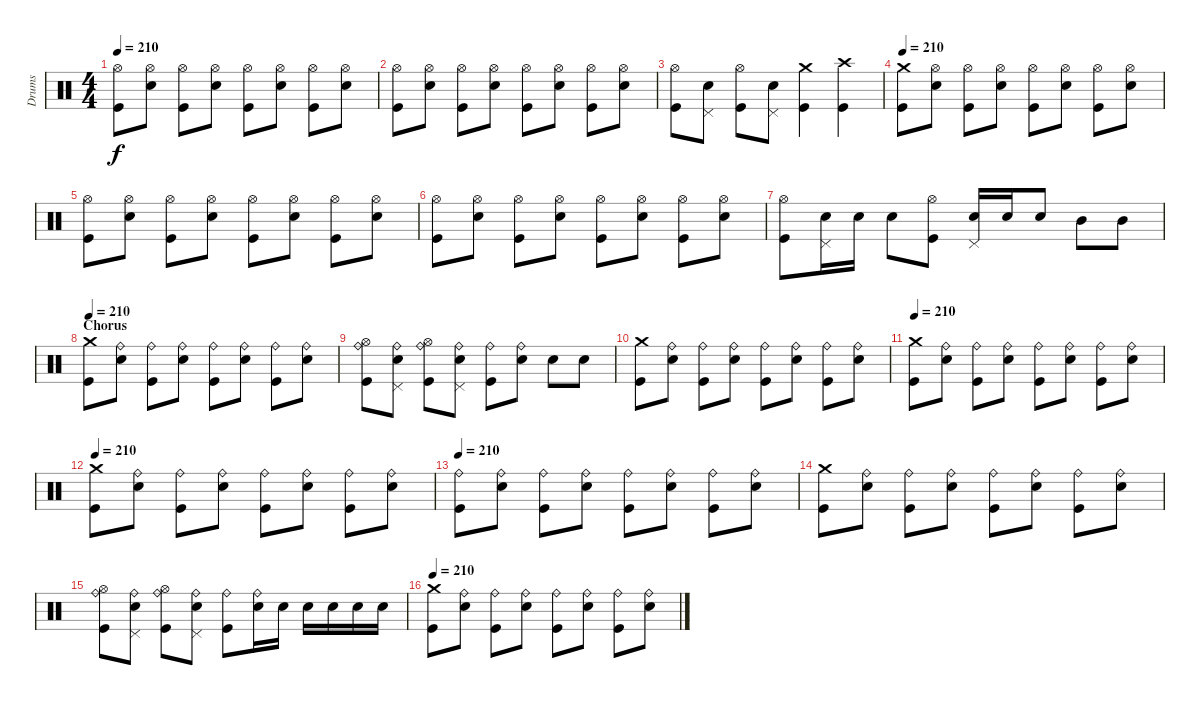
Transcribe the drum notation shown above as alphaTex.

\track ("Drums" "Drums") {instrument percussion}
\staff {score}
\articulation defaults
\ts (4 4)
\tempo 210
\clef neutral
\ks c
("Hi-Hat (open)" "Kick (hit)").8{dy f} ("Hi-Hat (open)" "Electric Snare (hit)").8 ("Hi-Hat (open)" "Kick (hit)").8 ("Hi-Hat (open)" "Electric Snare (hit)").8 ("Hi-Hat (open)" "Kick (hit)").8 ("Hi-Hat (open)" "Electric Snare (hit)").8 ("Hi-Hat (open)" "Kick (hit)").8 ("Hi-Hat (open)" "Electric Snare (hit)").8 |
("Hi-Hat (open)" "Kick (hit)").8 ("Hi-Hat (open)" "Electric Snare (hit)").8 ("Hi-Hat (open)" "Kick (hit)").8 ("Hi-Hat (open)" "Electric Snare (hit)").8 ("Hi-Hat (open)" "Kick (hit)").8 ("Hi-Hat (open)" "Electric Snare (hit)").8 ("Hi-Hat (open)" "Kick (hit)").8 ("Hi-Hat (open)" "Electric Snare (hit)").8 |
("Hi-Hat (open)" "Kick (hit)").8 ("Pedal Hi-Hat (hit)" "Electric Snare (hit)").8 ("Hi-Hat (open)" "Kick (hit)").8 ("Pedal Hi-Hat (hit)" "Electric Snare (hit)").8 ("Crash medium (hit)" "Kick (hit)").4 ("Crash high (hit)" "Kick (hit)").4 |
\tempo 210
("Crash medium (hit)" "Kick (hit)").8 ("Hi-Hat (open)" "Electric Snare (hit)").8 ("Hi-Hat (open)" "Kick (hit)").8 ("Hi-Hat (open)" "Electric Snare (hit)").8 ("Hi-Hat (open)" "Kick (hit)").8 ("Hi-Hat (open)" "Electric Snare (hit)").8 ("Hi-Hat (open)" "Kick (hit)").8 ("Hi-Hat (open)" "Electric Snare (hit)").8 |
("Hi-Hat (open)" "Kick (hit)").8 ("Hi-Hat (open)" "Electric Snare (hit)").8 ("Hi-Hat (open)" "Kick (hit)").8 ("Hi-Hat (open)" "Electric Snare (hit)").8 ("Hi-Hat (open)" "Kick (hit)").8 ("Hi-Hat (open)" "Electric Snare (hit)").8 ("Hi-Hat (open)" "Kick (hit)").8 ("Hi-Hat (open)" "Electric Snare (hit)").8 |
("Hi-Hat (open)" "Kick (hit)").8 ("Hi-Hat (open)" "Electric Snare (hit)").8 ("Hi-Hat (open)" "Kick (hit)").8 ("Hi-Hat (open)" "Electric Snare (hit)").8 ("Hi-Hat (open)" "Kick (hit)").8 ("Hi-Hat (open)" "Electric Snare (hit)").8 ("Hi-Hat (open)" "Kick (hit)").8 ("Hi-Hat (open)" "Electric Snare (hit)").8 |
("Hi-Hat (open)" "Kick (hit)").8 ("Pedal Hi-Hat (hit)" "Electric Snare (hit)").16 "Electric Snare (hit)".16 "Electric Snare (hit)".8 ("Hi-Hat (open)" "Kick (hit)").8 ("Pedal Hi-Hat (hit)" "Electric Snare (hit)").16 "Electric Snare (hit)".16 "Electric Snare (hit)".8 "Mid Tom (hit)".8 "Mid Tom (hit)".8 |
\section ("" "Chorus")
\tempo 210
("Crash medium (hit)" "Kick (hit)").8 ("Ride (bell)" "Electric Snare (hit)").8 ("Ride (bell)" "Kick (hit)").8 ("Ride (bell)" "Electric Snare (hit)").8 ("Ride (bell)" "Kick (hit)").8 ("Ride (bell)" "Electric Snare (hit)").8 ("Ride (bell)" "Kick (hit)").8 ("Ride (bell)" "Electric Snare (hit)").8 |
("Ride (bell)" "Hi-Hat (open)" "Kick (hit)").8 ("Ride (bell)" "Pedal Hi-Hat (hit)" "Electric Snare (hit)").8 ("Ride (bell)" "Hi-Hat (open)" "Kick (hit)").8 ("Ride (bell)" "Pedal Hi-Hat (hit)" "Electric Snare (hit)").8 ("Ride (bell)" "Kick (hit)").8 ("Ride (bell)" "Electric Snare (hit)").8 "Electric Snare (hit)".8 "Electric Snare (hit)".8 |
("Crash medium (hit)" "Kick (hit)").8 ("Ride (bell)" "Electric Snare (hit)").8 ("Ride (bell)" "Kick (hit)").8 ("Ride (bell)" "Electric Snare (hit)").8 ("Ride (bell)" "Kick (hit)").8 ("Ride (bell)" "Electric Snare (hit)").8 ("Ride (bell)" "Kick (hit)").8 ("Ride (bell)" "Electric Snare (hit)").8 |
\tempo 210
("Crash medium (hit)" "Kick (hit)").8 ("Ride (bell)" "Electric Snare (hit)").8 ("Ride (bell)" "Kick (hit)").8 ("Ride (bell)" "Electric Snare (hit)").8 ("Ride (bell)" "Kick (hit)").8 ("Ride (bell)" "Electric Snare (hit)").8 ("Ride (bell)" "Kick (hit)").8 ("Ride (bell)" "Electric Snare (hit)").8 |
\tempo 210
("Crash medium (hit)" "Kick (hit)").8 ("Ride (bell)" "Electric Snare (hit)").8 ("Ride (bell)" "Kick (hit)").8 ("Ride (bell)" "Electric Snare (hit)").8 ("Ride (bell)" "Kick (hit)").8 ("Ride (bell)" "Electric Snare (hit)").8 ("Ride (bell)" "Kick (hit)").8 ("Ride (bell)" "Electric Snare (hit)").8 |
\tempo 210
("Ride (bell)" "Kick (hit)").8 ("Ride (bell)" "Electric Snare (hit)").8 ("Ride (bell)" "Kick (hit)").8 ("Ride (bell)" "Electric Snare (hit)").8 ("Ride (bell)" "Kick (hit)").8 ("Ride (bell)" "Electric Snare (hit)").8 ("Ride (bell)" "Kick (hit)").8 ("Ride (bell)" "Electric Snare (hit)").8 |
("Crash medium (hit)" "Kick (hit)").8 ("Ride (bell)" "Electric Snare (hit)").8 ("Ride (bell)" "Kick (hit)").8 ("Ride (bell)" "Electric Snare (hit)").8 ("Ride (bell)" "Kick (hit)").8 ("Ride (bell)" "Electric Snare (hit)").8 ("Ride (bell)" "Kick (hit)").8 ("Ride (bell)" "Electric Snare (hit)").8 |
("Ride (bell)" "Hi-Hat (open)" "Kick (hit)").8 ("Ride (bell)" "Pedal Hi-Hat (hit)" "Electric Snare (hit)").8 ("Ride (bell)" "Hi-Hat (open)" "Kick (hit)").8 ("Ride (bell)" "Pedal Hi-Hat (hit)" "Electric Snare (hit)").8 ("Ride (bell)" "Kick (hit)").8 ("Ride (bell)" "Electric Snare (hit)").16 "Electric Snare (hit)".16 "Electric Snare (hit)".16 "Electric Snare (hit)".16 "Electric Snare (hit)".16 "Electric Snare (hit)".16 |
\tempo 210
("Crash medium (hit)" "Kick (hit)").8 ("Ride (bell)" "Electric Snare (hit)").8 ("Ride (bell)" "Kick (hit)").8 ("Ride (bell)" "Electric Snare (hit)").8 ("Ride (bell)" "Kick (hit)").8 ("Ride (bell)" "Electric Snare (hit)").8 ("Ride (bell)" "Kick (hit)").8 ("Ride (bell)" "Electric Snare (hit)").8
